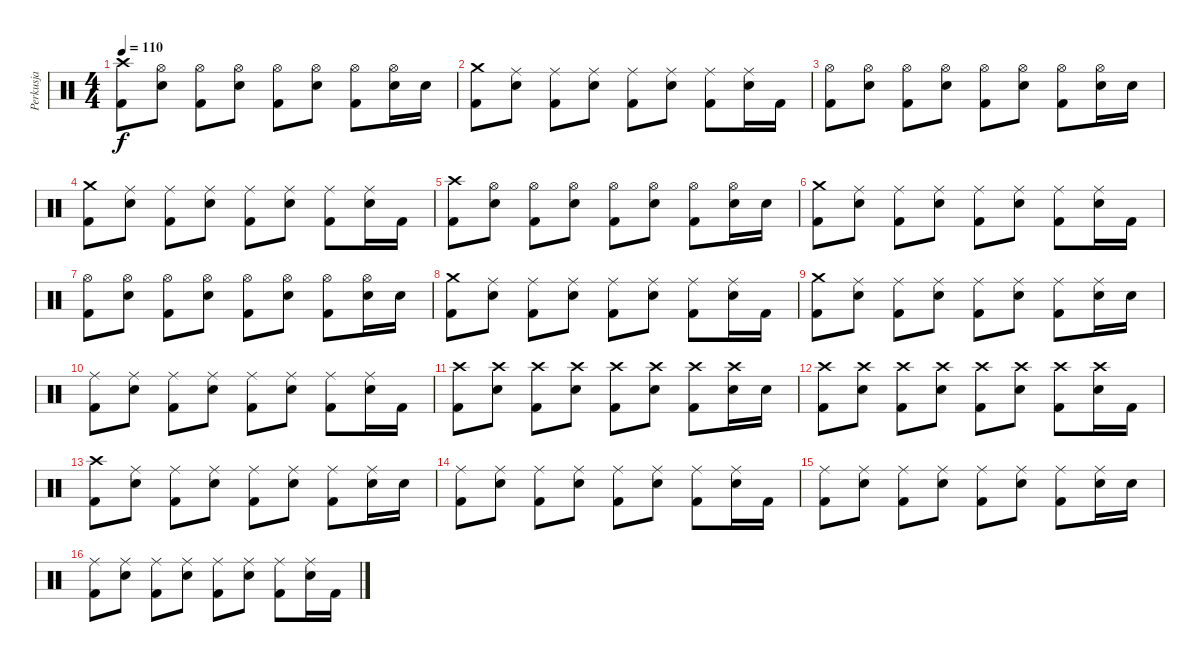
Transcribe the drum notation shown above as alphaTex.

\track ("Perkusja" "Perkusja") {instrument percussion}
\staff {score}
\articulation defaults
\ts (4 4)
\tempo 110
\clef neutral
\ks c
("Kick (hit) 2" "Crash high (hit)").8{dy f} ("Electric Snare (hit)" "Hi-Hat (open)").8 ("Kick (hit) 2" "Hi-Hat (open)").8 ("Electric Snare (hit)" "Hi-Hat (open)").8 ("Kick (hit) 2" "Hi-Hat (open)").8 ("Electric Snare (hit)" "Hi-Hat (open)").8 ("Kick (hit) 2" "Hi-Hat (open)").8 ("Electric Snare (hit)" "Hi-Hat (open)").16 "Electric Snare (hit)".16 |
("Kick (hit) 2" "Crash medium (hit)").8 ("Electric Snare (hit)" "Ride (middle)").8 ("Kick (hit) 2" "Ride (middle)").8 ("Electric Snare (hit)" "Ride (middle)").8 ("Kick (hit) 2" "Ride (middle)").8 ("Electric Snare (hit)" "Ride (middle)").8 ("Kick (hit) 2" "Ride (middle)").8 ("Electric Snare (hit)" "Ride (middle)").16 "Kick (hit) 2".16 |
("Kick (hit) 2" "Hi-Hat (open)").8 ("Electric Snare (hit)" "Hi-Hat (open)").8 ("Kick (hit) 2" "Hi-Hat (open)").8 ("Electric Snare (hit)" "Hi-Hat (open)").8 ("Kick (hit) 2" "Hi-Hat (open)").8 ("Electric Snare (hit)" "Hi-Hat (open)").8 ("Kick (hit) 2" "Hi-Hat (open)").8 ("Electric Snare (hit)" "Hi-Hat (open)").16 "Electric Snare (hit)".16 |
("Kick (hit) 2" "Crash medium (hit)").8 ("Electric Snare (hit)" "Ride (middle)").8 ("Kick (hit) 2" "Ride (middle)").8 ("Electric Snare (hit)" "Ride (middle)").8 ("Kick (hit) 2" "Ride (middle)").8 ("Electric Snare (hit)" "Ride (middle)").8 ("Kick (hit) 2" "Ride (middle)").8 ("Electric Snare (hit)" "Ride (middle)").16 "Kick (hit) 2".16 |
("Kick (hit) 2" "Crash high (hit)").8 ("Electric Snare (hit)" "Hi-Hat (open)").8 ("Kick (hit) 2" "Hi-Hat (open)").8 ("Electric Snare (hit)" "Hi-Hat (open)").8 ("Kick (hit) 2" "Hi-Hat (open)").8 ("Electric Snare (hit)" "Hi-Hat (open)").8 ("Kick (hit) 2" "Hi-Hat (open)").8 ("Electric Snare (hit)" "Hi-Hat (open)").16 "Electric Snare (hit)".16 |
("Kick (hit) 2" "Crash medium (hit)").8 ("Electric Snare (hit)" "Ride (middle)").8 ("Kick (hit) 2" "Ride (middle)").8 ("Electric Snare (hit)" "Ride (middle)").8 ("Kick (hit) 2" "Ride (middle)").8 ("Electric Snare (hit)" "Ride (middle)").8 ("Kick (hit) 2" "Ride (middle)").8 ("Electric Snare (hit)" "Ride (middle)").16 "Kick (hit) 2".16 |
("Kick (hit) 2" "Hi-Hat (open)").8 ("Electric Snare (hit)" "Hi-Hat (open)").8 ("Kick (hit) 2" "Hi-Hat (open)").8 ("Electric Snare (hit)" "Hi-Hat (open)").8 ("Kick (hit) 2" "Hi-Hat (open)").8 ("Electric Snare (hit)" "Hi-Hat (open)").8 ("Kick (hit) 2" "Hi-Hat (open)").8 ("Electric Snare (hit)" "Hi-Hat (open)").16 "Electric Snare (hit)".16 |
("Kick (hit) 2" "Crash medium (hit)").8 ("Electric Snare (hit)" "Ride (middle)").8 ("Kick (hit) 2" "Ride (middle)").8 ("Electric Snare (hit)" "Ride (middle)").8 ("Kick (hit) 2" "Ride (middle)").8 ("Electric Snare (hit)" "Ride (middle)").8 ("Kick (hit) 2" "Ride (middle)").8 ("Electric Snare (hit)" "Ride (middle)").16 "Kick (hit) 2".16 |
("Kick (hit) 2" "Crash medium (hit)").8 ("Electric Snare (hit)" "Ride (middle)").8 ("Kick (hit) 2" "Ride (middle)").8 ("Electric Snare (hit)" "Ride (middle)").8 ("Kick (hit) 2" "Ride (middle)").8 ("Electric Snare (hit)" "Ride (middle)").8 ("Kick (hit) 2" "Ride (middle)").8 ("Electric Snare (hit)" "Ride (middle)").16 "Electric Snare (hit)".16 |
("Kick (hit) 2" "Ride (middle)").8 ("Electric Snare (hit)" "Ride (middle)").8 ("Kick (hit) 2" "Ride (middle)").8 ("Electric Snare (hit)" "Ride (middle)").8 ("Kick (hit) 2" "Ride (middle)").8 ("Electric Snare (hit)" "Ride (middle)").8 ("Kick (hit) 2" "Ride (middle)").8 ("Electric Snare (hit)" "Ride (middle)").16 "Kick (hit) 2".16 |
("Kick (hit) 2" "Crash high (hit)").8 ("Electric Snare (hit)" "Crash high (hit)").8 ("Kick (hit) 2" "Crash high (hit)").8 ("Electric Snare (hit)" "Crash high (hit)").8 ("Kick (hit) 2" "Crash high (hit)").8 ("Electric Snare (hit)" "Crash high (hit)").8 ("Kick (hit) 2" "Crash high (hit)").8 ("Electric Snare (hit)" "Crash high (hit)").16 "Electric Snare (hit)".16 |
("Kick (hit) 2" "Crash high (hit)").8 ("Electric Snare (hit)" "Crash high (hit)").8 ("Kick (hit) 2" "Crash high (hit)").8 ("Electric Snare (hit)" "Crash high (hit)").8 ("Kick (hit) 2" "Crash high (hit)").8 ("Electric Snare (hit)" "Crash high (hit)").8 ("Kick (hit) 2" "Crash high (hit)").8 ("Electric Snare (hit)" "Crash high (hit)").16 "Kick (hit) 2".16 |
("Kick (hit) 2" "Crash high (hit)").8 ("Electric Snare (hit)" "Ride (middle)").8 ("Kick (hit) 2" "Ride (middle)").8 ("Electric Snare (hit)" "Ride (middle)").8 ("Kick (hit) 2" "Ride (middle)").8 ("Electric Snare (hit)" "Ride (middle)").8 ("Kick (hit) 2" "Ride (middle)").8 ("Electric Snare (hit)" "Ride (middle)").16 "Electric Snare (hit)".16 |
("Kick (hit) 2" "Ride (middle)").8 ("Electric Snare (hit)" "Ride (middle)").8 ("Kick (hit) 2" "Ride (middle)").8 ("Electric Snare (hit)" "Ride (middle)").8 ("Kick (hit) 2" "Ride (middle)").8 ("Electric Snare (hit)" "Ride (middle)").8 ("Kick (hit) 2" "Ride (middle)").8 ("Electric Snare (hit)" "Ride (middle)").16 "Kick (hit) 2".16 |
("Kick (hit) 2" "Ride (middle)").8 ("Electric Snare (hit)" "Ride (middle)").8 ("Kick (hit) 2" "Ride (middle)").8 ("Electric Snare (hit)" "Ride (middle)").8 ("Kick (hit) 2" "Ride (middle)").8 ("Electric Snare (hit)" "Ride (middle)").8 ("Kick (hit) 2" "Ride (middle)").8 ("Electric Snare (hit)" "Ride (middle)").16 "Electric Snare (hit)".16 |
("Kick (hit) 2" "Ride (middle)").8 ("Electric Snare (hit)" "Ride (middle)").8 ("Kick (hit) 2" "Ride (middle)").8 ("Electric Snare (hit)" "Ride (middle)").8 ("Kick (hit) 2" "Ride (middle)").8 ("Electric Snare (hit)" "Ride (middle)").8 ("Kick (hit) 2" "Ride (middle)").8 ("Electric Snare (hit)" "Ride (middle)").16 "Kick (hit) 2".16
